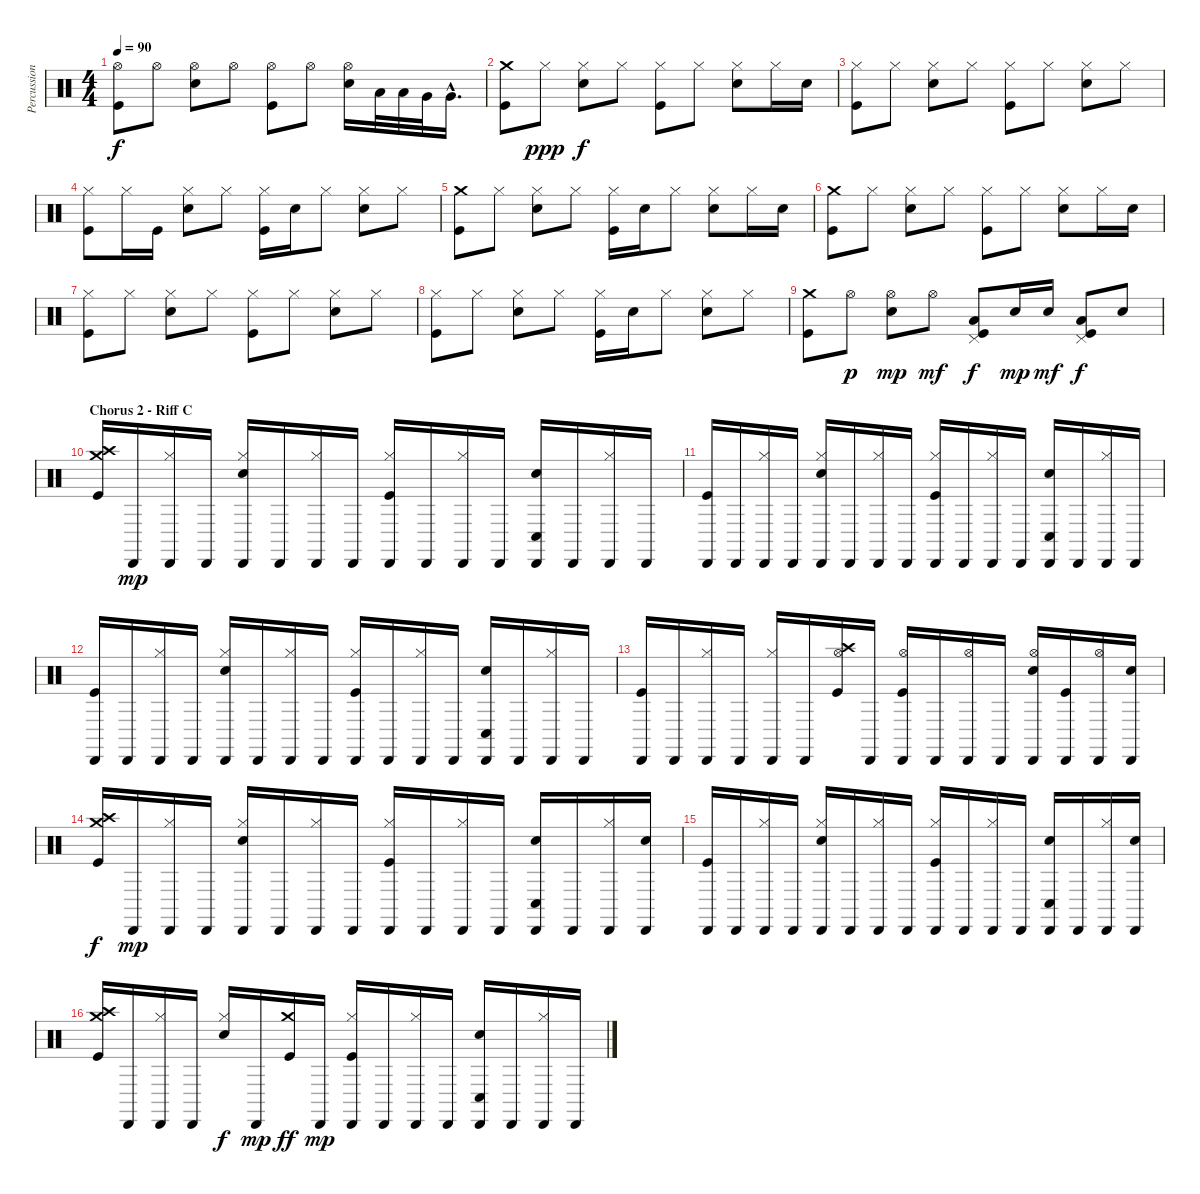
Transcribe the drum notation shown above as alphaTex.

\track ("Percussion (DK 0)" "Percussion") {instrument percussion}
\staff {score}
\articulation defaults
\ts (4 4)
\tempo 90
\clef neutral
\ks c
("Hi-Hat (open)" "Kick (hit)").8{dy f} "Hi-Hat (open)".8 ("Hi-Hat (open)" "Electric Snare (hit)").8 "Hi-Hat (open)".8 ("Hi-Hat (open)" "Kick (hit)").8 "Hi-Hat (open)".8 ("Hi-Hat (open)" "Electric Snare (hit)").16 "Low Tom (hit)".32 "Low Tom (hit)".32 "Very Low Tom (hit)".32 "Very Low Tom (hit)"{hac}.16{d} |
("Crash medium (hit)" "Kick (hit)").8 "Hi-Hat (closed)".8{dy ppp} ("Hi-Hat (closed)" "Electric Snare (hit)").8{dy f} "Hi-Hat (closed)".8 ("Hi-Hat (closed)" "Kick (hit)").8 "Hi-Hat (closed)".8 ("Hi-Hat (closed)" "Electric Snare (hit)").8 "Hi-Hat (closed)".16 "Electric Snare (hit)".16 |
("Hi-Hat (closed)" "Kick (hit)").8 "Hi-Hat (closed)".8 ("Hi-Hat (closed)" "Electric Snare (hit)").8 "Hi-Hat (closed)".8 ("Hi-Hat (closed)" "Kick (hit)").8 "Hi-Hat (closed)".8 ("Hi-Hat (closed)" "Electric Snare (hit)").8 "Hi-Hat (closed)".8 |
("Hi-Hat (closed)" "Kick (hit)").8 "Hi-Hat (closed)".16 "Kick (hit)".16 ("Hi-Hat (closed)" "Electric Snare (hit)").8 "Hi-Hat (closed)".8 ("Hi-Hat (closed)" "Kick (hit)").16 "Electric Snare (hit)".16 "Hi-Hat (closed)".8 ("Hi-Hat (closed)" "Electric Snare (hit)").8 "Hi-Hat (closed)".8 |
("Crash medium (hit)" "Kick (hit)").8 "Hi-Hat (closed)".8 ("Hi-Hat (closed)" "Electric Snare (hit)").8 "Hi-Hat (closed)".8 ("Hi-Hat (closed)" "Kick (hit)").16 "Electric Snare (hit)".16 "Hi-Hat (closed)".8 ("Hi-Hat (closed)" "Electric Snare (hit)").8 "Hi-Hat (closed)".16 "Electric Snare (hit)".16 |
("Crash medium (hit)" "Kick (hit)").8 "Hi-Hat (closed)".8 ("Hi-Hat (closed)" "Electric Snare (hit)").8 "Hi-Hat (closed)".8 ("Hi-Hat (closed)" "Kick (hit)").8 "Hi-Hat (closed)".8 ("Hi-Hat (closed)" "Electric Snare (hit)").8 "Hi-Hat (closed)".16 "Electric Snare (hit)".16 |
("Hi-Hat (closed)" "Kick (hit)").8 "Hi-Hat (closed)".8 ("Hi-Hat (closed)" "Electric Snare (hit)").8 "Hi-Hat (closed)".8 ("Hi-Hat (closed)" "Kick (hit)").8 "Hi-Hat (closed)".8 ("Hi-Hat (closed)" "Electric Snare (hit)").8 "Hi-Hat (closed)".8 |
("Hi-Hat (closed)" "Kick (hit)").8 "Hi-Hat (closed)".8 ("Hi-Hat (closed)" "Electric Snare (hit)").8 "Hi-Hat (closed)".8 ("Hi-Hat (closed)" "Kick (hit)").16 "Electric Snare (hit)".16 "Hi-Hat (closed)".8 ("Hi-Hat (closed)" "Electric Snare (hit)").8 "Hi-Hat (closed)".8 |
("Crash medium (hit)" "Kick (hit)").8 "Hi-Hat (open)".8{dy p} ("Hi-Hat (open)" "Electric Snare (hit)").8{dy mp} "Hi-Hat (open)".8{dy mf} ("Pedal Hi-Hat (hit)" "Low Tom (hit)" "Kick (hit)").8{dy f} "Electric Snare (hit)".16{dy mp} "Electric Snare (hit)".16{dy mf} ("Pedal Hi-Hat (hit)" "Low Tom (hit)" "Kick (hit)").8{dy f} "Electric Snare (hit)".8 |
\section ("" "Chorus 2 - Riff C")
("Crash medium (hit)" "Crash high (hit)" "Kick (hit)").16 "Cabasa (hit)".16{dy mp} ("Cabasa (hit)" "Hi-Hat (closed)").16 "Cabasa (hit)".16 ("Cabasa (hit)" "Hi-Hat (closed)" "Electric Snare (hit)").16 "Cabasa (hit)".16 ("Cabasa (hit)" "Hi-Hat (closed)").16 "Cabasa (hit)".16 ("Cabasa (hit)" "Hi-Hat (closed)" "Kick (hit)").16 "Cabasa (hit)".16 ("Cabasa (hit)" "Hi-Hat (closed)").16 "Cabasa (hit)".16 ("Cabasa (hit)" "Conga low (hit)" "Electric Snare (hit)").16 "Cabasa (hit)".16 ("Cabasa (hit)" "Hi-Hat (closed)").16 "Cabasa (hit)".16 |
("Cabasa (hit)" "Kick (hit)").16 "Cabasa (hit)".16 ("Cabasa (hit)" "Hi-Hat (closed)").16 "Cabasa (hit)".16 ("Cabasa (hit)" "Hi-Hat (closed)" "Electric Snare (hit)").16 "Cabasa (hit)".16 ("Cabasa (hit)" "Hi-Hat (closed)").16 "Cabasa (hit)".16 ("Cabasa (hit)" "Hi-Hat (closed)" "Kick (hit)").16 "Cabasa (hit)".16 ("Cabasa (hit)" "Hi-Hat (closed)").16 "Cabasa (hit)".16 ("Cabasa (hit)" "Conga low (hit)" "Electric Snare (hit)").16 "Cabasa (hit)".16 ("Cabasa (hit)" "Hi-Hat (closed)").16 "Cabasa (hit)".16 |
("Cabasa (hit)" "Kick (hit)").16 "Cabasa (hit)".16 ("Cabasa (hit)" "Hi-Hat (closed)").16 "Cabasa (hit)".16 ("Cabasa (hit)" "Hi-Hat (closed)" "Electric Snare (hit)").16 "Cabasa (hit)".16 ("Cabasa (hit)" "Hi-Hat (closed)").16 "Cabasa (hit)".16 ("Cabasa (hit)" "Hi-Hat (closed)" "Kick (hit)").16 "Cabasa (hit)".16 ("Cabasa (hit)" "Hi-Hat (closed)").16 "Cabasa (hit)".16 ("Cabasa (hit)" "Conga low (hit)" "Electric Snare (hit)").16 "Cabasa (hit)".16 ("Cabasa (hit)" "Hi-Hat (closed)").16 "Cabasa (hit)".16 |
("Cabasa (hit)" "Kick (hit)").16 "Cabasa (hit)".16 ("Cabasa (hit)" "Hi-Hat (closed)").16 "Cabasa (hit)".16 ("Cabasa (hit)" "Hi-Hat (closed)").16 "Cabasa (hit)".16 ("Crash high (hit)" "Hi-Hat (open)" "Kick (hit)").16 "Cabasa (hit)".16 ("Cabasa (hit)" "Hi-Hat (open)" "Kick (hit)").16 "Cabasa (hit)".16 ("Cabasa (hit)" "Hi-Hat (open)").16 "Cabasa (hit)".16 ("Cabasa (hit)" "Hi-Hat (open)" "Electric Snare (hit)").16 ("Cabasa (hit)" "Kick (hit)").16 ("Cabasa (hit)" "Hi-Hat (open)").16 ("Cabasa (hit)" "Electric Snare (hit)").16 |
("Crash medium (hit)" "Crash high (hit)" "Kick (hit)").16{dy f} "Cabasa (hit)".16{dy mp} ("Cabasa (hit)" "Hi-Hat (closed)").16 "Cabasa (hit)".16 ("Cabasa (hit)" "Hi-Hat (closed)" "Electric Snare (hit)").16 "Cabasa (hit)".16 ("Cabasa (hit)" "Hi-Hat (closed)").16 "Cabasa (hit)".16 ("Cabasa (hit)" "Hi-Hat (closed)" "Kick (hit)").16 "Cabasa (hit)".16 ("Cabasa (hit)" "Hi-Hat (closed)").16 "Cabasa (hit)".16 ("Cabasa (hit)" "Conga low (hit)" "Electric Snare (hit)").16 "Cabasa (hit)".16 ("Cabasa (hit)" "Hi-Hat (closed)").16 ("Cabasa (hit)" "Electric Snare (hit)").16 |
("Cabasa (hit)" "Kick (hit)").16 "Cabasa (hit)".16 ("Cabasa (hit)" "Hi-Hat (closed)").16 "Cabasa (hit)".16 ("Cabasa (hit)" "Hi-Hat (closed)" "Electric Snare (hit)").16 "Cabasa (hit)".16 ("Cabasa (hit)" "Hi-Hat (closed)").16 "Cabasa (hit)".16 ("Cabasa (hit)" "Hi-Hat (closed)" "Kick (hit)").16 "Cabasa (hit)".16 ("Cabasa (hit)" "Hi-Hat (closed)").16 "Cabasa (hit)".16 ("Cabasa (hit)" "Conga low (hit)" "Electric Snare (hit)").16 "Cabasa (hit)".16 ("Cabasa (hit)" "Hi-Hat (closed)").16 ("Cabasa (hit)" "Electric Snare (hit)").16 |
("Crash medium (hit)" "Crash high (hit)" "Kick (hit)").16 "Cabasa (hit)".16 ("Cabasa (hit)" "Hi-Hat (closed)").16 "Cabasa (hit)".16 ("Hi-Hat (closed)" "Electric Snare (hit)").16{dy f} "Cabasa (hit)".16{dy mp} ("Crash medium (hit)" "Kick (hit)").16{dy ff} "Cabasa (hit)".16{dy mp} ("Cabasa (hit)" "Hi-Hat (closed)" "Kick (hit)").16 "Cabasa (hit)".16 ("Cabasa (hit)" "Hi-Hat (closed)").16 "Cabasa (hit)".16 ("Cabasa (hit)" "Conga low (hit)" "Electric Snare (hit)").16 "Cabasa (hit)".16 ("Cabasa (hit)" "Hi-Hat (closed)").16 "Cabasa (hit)".16
